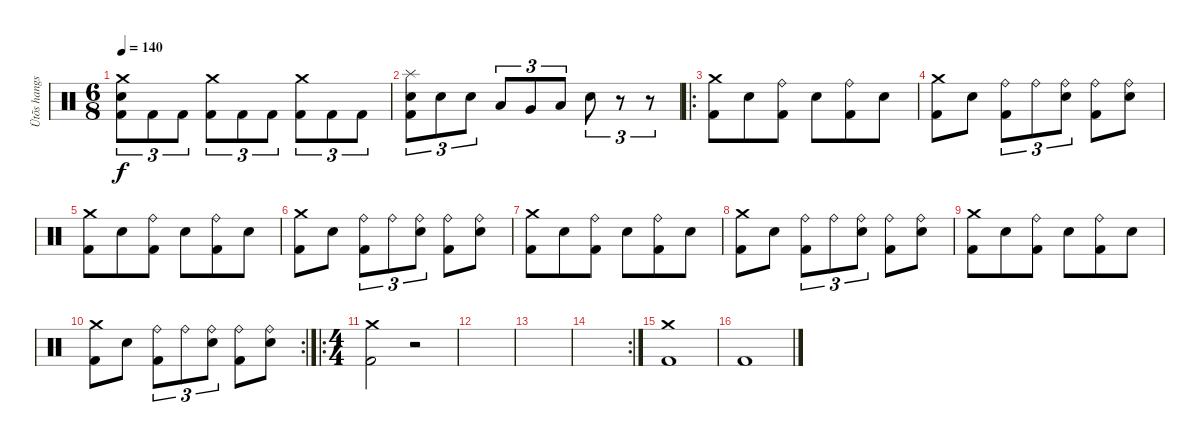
\track ("Ütõs hangszer" "Ütõs hangs") {instrument percussion}
\staff {score}
\articulation defaults
\ts (6 8)
\tempo 140
\clef neutral
\ks c
("Crash medium (hit)" "Electric Snare (hit)" "Kick (hit) 2").8{tu (3 2) dy f} "Kick (hit) 2".8{tu (3 2)} "Kick (hit) 2".8{tu (3 2)} ("Crash medium (hit)" "Kick (hit) 2").8{tu (3 2)} "Kick (hit) 2".8{tu (3 2)} "Kick (hit) 2".8{tu (3 2)} ("Crash medium (hit)" "Kick (hit) 2").8{tu (3 2)} "Kick (hit) 2".8{tu (3 2)} "Kick (hit) 2".8{tu (3 2)} |
("Splash (hit)" "Electric Snare (hit)" "Kick (hit) 2").8{tu (3 2)} "Electric Snare (hit)".8{tu (3 2)} "Electric Snare (hit)".8{tu (3 2)} "Low Tom (hit)".8{tu (3 2)} "Very Low Tom (hit)".8{tu (3 2)} "Low Floor Tom (hit)".8{tu (3 2)} "Electric Snare (hit)".8{tu (3 2)} r.8{tu (3 2)} r.8{tu (3 2)} |
\ro
("Crash medium (hit)" "Kick (hit) 2").8 "Electric Snare (hit)".8 ("Ride (bell)" "Kick (hit) 2").8 "Electric Snare (hit)".8 ("Ride (bell)" "Kick (hit) 2").8 "Electric Snare (hit)".8 |
("Crash medium (hit)" "Kick (hit) 2").8 "Electric Snare (hit)".8 ("Ride (bell)" "Kick (hit) 2").8{tu (3 2)} "Ride (bell)".8{tu (3 2)} ("Ride (bell)" "Electric Snare (hit)").8{tu (3 2)} ("Ride (bell)" "Kick (hit) 2").8 ("Ride (bell)" "Electric Snare (hit)").8 |
("Crash medium (hit)" "Kick (hit) 2").8 "Electric Snare (hit)".8 ("Ride (bell)" "Kick (hit) 2").8 "Electric Snare (hit)".8 ("Ride (bell)" "Kick (hit) 2").8 "Electric Snare (hit)".8 |
("Crash medium (hit)" "Kick (hit) 2").8 "Electric Snare (hit)".8 ("Ride (bell)" "Kick (hit) 2").8{tu (3 2)} "Ride (bell)".8{tu (3 2)} ("Ride (bell)" "Electric Snare (hit)").8{tu (3 2)} ("Ride (bell)" "Kick (hit) 2").8 ("Ride (bell)" "Electric Snare (hit)").8 |
("Crash medium (hit)" "Kick (hit) 2").8 "Electric Snare (hit)".8 ("Ride (bell)" "Kick (hit) 2").8 "Electric Snare (hit)".8 ("Ride (bell)" "Kick (hit) 2").8 "Electric Snare (hit)".8 |
("Crash medium (hit)" "Kick (hit) 2").8 "Electric Snare (hit)".8 ("Ride (bell)" "Kick (hit) 2").8{tu (3 2)} "Ride (bell)".8{tu (3 2)} ("Ride (bell)" "Electric Snare (hit)").8{tu (3 2)} ("Ride (bell)" "Kick (hit) 2").8 ("Ride (bell)" "Electric Snare (hit)").8 |
("Crash medium (hit)" "Kick (hit) 2").8 "Electric Snare (hit)".8 ("Ride (bell)" "Kick (hit) 2").8 "Electric Snare (hit)".8 ("Ride (bell)" "Kick (hit) 2").8 "Electric Snare (hit)".8 |
\rc 2
("Crash medium (hit)" "Kick (hit) 2").8 "Electric Snare (hit)".8 ("Ride (bell)" "Kick (hit) 2").8{tu (3 2)} "Ride (bell)".8{tu (3 2)} ("Ride (bell)" "Electric Snare (hit)").8{tu (3 2)} ("Ride (bell)" "Kick (hit) 2").8 ("Ride (bell)" "Electric Snare (hit)").8 |
\ro
\ts (4 4)
("Crash medium (hit)" "Kick (hit) 2").2 r.2 |
|
|
\rc 2
|
("Crash medium (hit)" "Kick (hit) 2").1 |
"Kick (hit) 2".1
